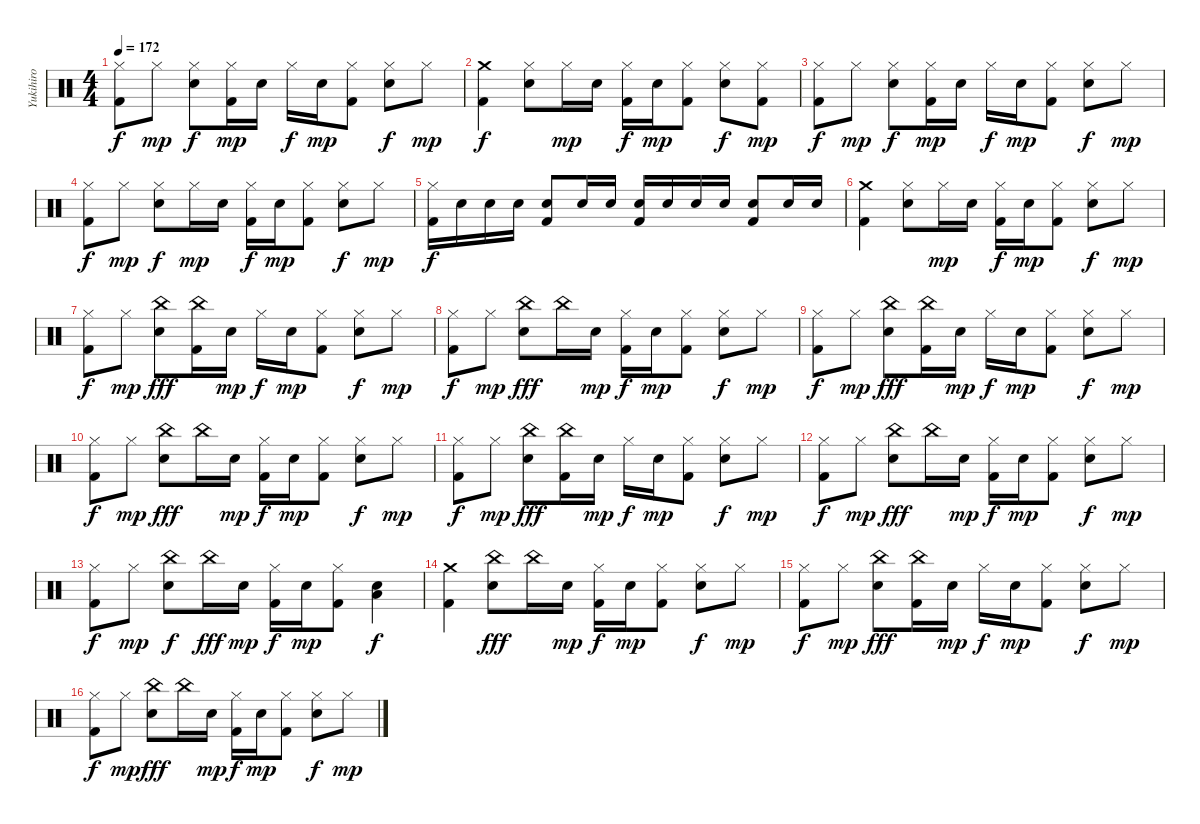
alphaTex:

\track ("Yukihiro" "Yukihiro") {instrument percussion}
\staff {score}
\articulation defaults
\ts (4 4)
\tempo 172
\clef neutral
\ks c
("Hi-Hat (closed)" "Kick (hit) 2").8{dy f} "Hi-Hat (closed)".8{dy mp} ("Hi-Hat (closed)" "Electric Snare (hit)").8{dy f} ("Hi-Hat (closed)" "Kick (hit) 2").16{dy mp} "Electric Snare (hit)".16 "Hi-Hat (closed)".16{dy f} "Electric Snare (hit)".16{dy mp} ("Hi-Hat (closed)" "Kick (hit) 2").8 ("Hi-Hat (closed)" "Electric Snare (hit)").8{dy f} "Hi-Hat (closed)".8{dy mp} |
("Crash medium (hit)" "Kick (hit) 2").4{dy f} ("Hi-Hat (closed)" "Electric Snare (hit)").8 "Hi-Hat (closed)".16{dy mp} "Electric Snare (hit)".16 ("Hi-Hat (closed)" "Kick (hit) 2").16{dy f} "Electric Snare (hit)".16{dy mp} ("Hi-Hat (closed)" "Kick (hit) 2").8 ("Hi-Hat (closed)" "Electric Snare (hit)").8{dy f} ("Hi-Hat (closed)" "Kick (hit) 2").8{dy mp} |
("Hi-Hat (closed)" "Kick (hit) 2").8{dy f} "Hi-Hat (closed)".8{dy mp} ("Hi-Hat (closed)" "Electric Snare (hit)").8{dy f} ("Hi-Hat (closed)" "Kick (hit) 2").16{dy mp} "Electric Snare (hit)".16 "Hi-Hat (closed)".16{dy f} "Electric Snare (hit)".16{dy mp} ("Hi-Hat (closed)" "Kick (hit) 2").8 ("Hi-Hat (closed)" "Electric Snare (hit)").8{dy f} "Hi-Hat (closed)".8{dy mp} |
("Hi-Hat (closed)" "Kick (hit) 2").8{dy f} "Hi-Hat (closed)".8{dy mp} ("Hi-Hat (closed)" "Electric Snare (hit)").8{dy f} "Hi-Hat (closed)".16{dy mp} "Electric Snare (hit)".16 ("Hi-Hat (closed)" "Kick (hit) 2").16{dy f} "Electric Snare (hit)".16{dy mp} ("Hi-Hat (closed)" "Kick (hit) 2").8 ("Hi-Hat (closed)" "Electric Snare (hit)").8{dy f} "Hi-Hat (closed)".8{dy mp} |
("Hi-Hat (closed)" "Kick (hit) 2").16{dy f} "Electric Snare (hit)".16 "Electric Snare (hit)".16 "Electric Snare (hit)".16 ("Electric Snare (hit)" "Kick (hit) 2").8 "Electric Snare (hit)".16 "Electric Snare (hit)".16 ("Electric Snare (hit)" "Kick (hit) 2").16 "Electric Snare (hit)".16 "Electric Snare (hit)".16 "Electric Snare (hit)".16 ("Electric Snare (hit)" "Kick (hit) 2").8 "Electric Snare (hit)".16 "Electric Snare (hit)".16 |
("Crash medium (hit)" "Kick (hit) 2").4 ("Hi-Hat (closed)" "Electric Snare (hit)").8 "Hi-Hat (closed)".16{dy mp} "Electric Snare (hit)".16 ("Hi-Hat (closed)" "Kick (hit) 2").16{dy f} "Electric Snare (hit)".16{dy mp} ("Hi-Hat (closed)" "Kick (hit) 2").8 ("Hi-Hat (closed)" "Electric Snare (hit)").8{dy f} "Hi-Hat (closed)".8{dy mp} |
("Hi-Hat (closed)" "Kick (hit) 2").8{dy f} "Hi-Hat (closed)".8{dy mp} ("China (hit)" "Electric Snare (hit)").8{dy fff} ("China (hit)" "Kick (hit) 2").16 "Electric Snare (hit)".16{dy mp} "Hi-Hat (closed)".16{dy f} "Electric Snare (hit)".16{dy mp} ("Hi-Hat (closed)" "Kick (hit) 2").8 ("Hi-Hat (closed)" "Electric Snare (hit)").8{dy f} "Hi-Hat (closed)".8{dy mp} |
("Hi-Hat (closed)" "Kick (hit) 2").8{dy f} "Hi-Hat (closed)".8{dy mp} ("China (hit)" "Electric Snare (hit)").8{dy fff} "China (hit)".16 "Electric Snare (hit)".16{dy mp} ("Hi-Hat (closed)" "Kick (hit) 2").16{dy f} "Electric Snare (hit)".16{dy mp} ("Hi-Hat (closed)" "Kick (hit) 2").8 ("Hi-Hat (closed)" "Electric Snare (hit)").8{dy f} "Hi-Hat (closed)".8{dy mp} |
("Hi-Hat (closed)" "Kick (hit) 2").8{dy f} "Hi-Hat (closed)".8{dy mp} ("China (hit)" "Electric Snare (hit)").8{dy fff} ("China (hit)" "Kick (hit) 2").16 "Electric Snare (hit)".16{dy mp} "Hi-Hat (closed)".16{dy f} "Electric Snare (hit)".16{dy mp} ("Hi-Hat (closed)" "Kick (hit) 2").8 ("Hi-Hat (closed)" "Electric Snare (hit)").8{dy f} "Hi-Hat (closed)".8{dy mp} |
("Hi-Hat (closed)" "Kick (hit) 2").8{dy f} "Hi-Hat (closed)".8{dy mp} ("China (hit)" "Electric Snare (hit)").8{dy fff} "China (hit)".16 "Electric Snare (hit)".16{dy mp} ("Hi-Hat (closed)" "Kick (hit) 2").16{dy f} "Electric Snare (hit)".16{dy mp} ("Hi-Hat (closed)" "Kick (hit) 2").8 ("Hi-Hat (closed)" "Electric Snare (hit)").8{dy f} "Hi-Hat (closed)".8{dy mp} |
("Hi-Hat (closed)" "Kick (hit) 2").8{dy f} "Hi-Hat (closed)".8{dy mp} ("China (hit)" "Electric Snare (hit)").8{dy fff} ("China (hit)" "Kick (hit) 2").16 "Electric Snare (hit)".16{dy mp} "Hi-Hat (closed)".16{dy f} "Electric Snare (hit)".16{dy mp} ("Hi-Hat (closed)" "Kick (hit) 2").8 ("Hi-Hat (closed)" "Electric Snare (hit)").8{dy f} "Hi-Hat (closed)".8{dy mp} |
("Hi-Hat (closed)" "Kick (hit) 2").8{dy f} "Hi-Hat (closed)".8{dy mp} ("China (hit)" "Electric Snare (hit)").8{dy fff} "China (hit)".16 "Electric Snare (hit)".16{dy mp} ("Hi-Hat (closed)" "Kick (hit) 2").16{dy f} "Electric Snare (hit)".16{dy mp} ("Hi-Hat (closed)" "Kick (hit) 2").8 ("Hi-Hat (closed)" "Electric Snare (hit)").8{dy f} "Hi-Hat (closed)".8{dy mp} |
("Hi-Hat (closed)" "Kick (hit) 2").8{dy f} "Hi-Hat (closed)".8{dy mp} ("China (hit)" "Electric Snare (hit)").8{dy f} "China (hit)".16{dy fff} "Electric Snare (hit)".16{dy mp} ("Hi-Hat (closed)" "Kick (hit) 2").16{dy f} "Electric Snare (hit)".16{dy mp} ("Hi-Hat (closed)" "Kick (hit) 2").8 ("Electric Snare (hit)" "Low Tom (hit)").4{dy f} |
("Crash medium (hit)" "Kick (hit) 2").4 ("China (hit)" "Electric Snare (hit)").8{dy fff} "China (hit)".16 "Electric Snare (hit)".16{dy mp} ("Hi-Hat (closed)" "Kick (hit) 2").16{dy f} "Electric Snare (hit)".16{dy mp} ("Hi-Hat (closed)" "Kick (hit) 2").8 ("Hi-Hat (closed)" "Electric Snare (hit)").8{dy f} "Hi-Hat (closed)".8{dy mp} |
("Hi-Hat (closed)" "Kick (hit) 2").8{dy f} "Hi-Hat (closed)".8{dy mp} ("China (hit)" "Electric Snare (hit)").8{dy fff} ("China (hit)" "Kick (hit) 2").16 "Electric Snare (hit)".16{dy mp} "Hi-Hat (closed)".16{dy f} "Electric Snare (hit)".16{dy mp} ("Hi-Hat (closed)" "Kick (hit) 2").8 ("Hi-Hat (closed)" "Electric Snare (hit)").8{dy f} "Hi-Hat (closed)".8{dy mp} |
("Hi-Hat (closed)" "Kick (hit) 2").8{dy f} "Hi-Hat (closed)".8{dy mp} ("China (hit)" "Electric Snare (hit)").8{dy fff} "China (hit)".16 "Electric Snare (hit)".16{dy mp} ("Hi-Hat (closed)" "Kick (hit) 2").16{dy f} "Electric Snare (hit)".16{dy mp} ("Hi-Hat (closed)" "Kick (hit) 2").8 ("Hi-Hat (closed)" "Electric Snare (hit)").8{dy f} "Hi-Hat (closed)".8{dy mp}
